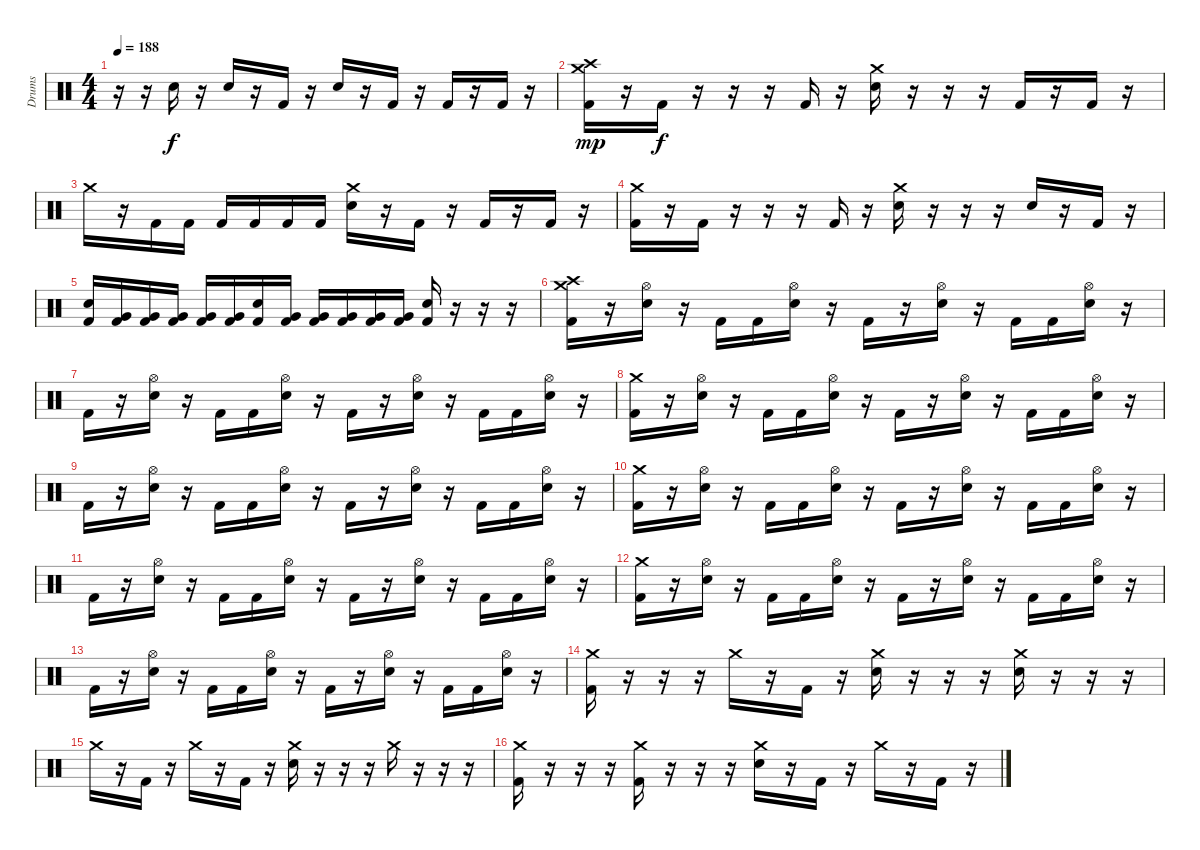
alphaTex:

\track ("Drums" "Drums") {instrument percussion}
\staff {score}
\articulation defaults
\ts (4 4)
\tempo 188
\clef neutral
\ks c
r.16{dy f} r.16 "Snare (hit) 2".16 r.16 "Snare (hit) 2".16 r.16 "Kick (hit) 2".16 r.16 "Snare (hit) 2".16 r.16 "Kick (hit) 2".16 r.16 "Kick (hit) 2".16 r.16 "Kick (hit) 2".16 r.16 |
("Crash medium (hit)" "Crash high (hit)" "Kick (hit) 2").16{dy mp} r.16 "Kick (hit) 2".16{dy f} r.16 r.16 r.16 "Kick (hit) 2".16 r.16 ("Crash medium (hit)" "Snare (hit) 2").16 r.16 r.16 r.16 "Kick (hit) 2".16 r.16 "Kick (hit) 2".16 r.16 |
"Crash medium (hit)".16 r.16 "Kick (hit) 2".16 "Kick (hit) 2".16 "Kick (hit) 2".16 "Kick (hit) 2".16 "Kick (hit) 2".16 "Kick (hit) 2".16 ("Crash medium (hit)" "Snare (hit) 2").16 r.16 "Kick (hit) 2".16 r.16 "Kick (hit) 2".16 r.16 "Kick (hit) 2".16 r.16 |
("Crash medium (hit)" "Kick (hit) 2").16 r.16 "Kick (hit) 2".16 r.16 r.16 r.16 "Kick (hit) 2".16 r.16 ("Crash medium (hit)" "Snare (hit) 2").16 r.16 r.16 r.16 "Snare (hit) 2".16 r.16 "Kick (hit) 2".16 r.16 |
("Snare (hit) 2" "Kick (hit) 2").16 ("Very Low Tom (hit)" "Kick (hit) 2").16 ("Very Low Tom (hit)" "Kick (hit) 2").16 ("Very Low Tom (hit)" "Kick (hit) 2").16 ("Very Low Tom (hit)" "Kick (hit) 2").16 ("Very Low Tom (hit)" "Kick (hit) 2").16 ("Snare (hit) 2" "Kick (hit) 2").16 ("Very Low Tom (hit)" "Kick (hit) 2").16 ("Very Low Tom (hit)" "Kick (hit) 2").16 ("Very Low Tom (hit)" "Kick (hit) 2").16 ("Very Low Tom (hit)" "Kick (hit) 2").16 ("Very Low Tom (hit)" "Kick (hit) 2").16 ("Snare (hit) 2" "Kick (hit) 2").16 r.16 r.16 r.16 |
("Crash medium (hit)" "Crash high (hit)" "Kick (hit) 2").16 r.16 ("Hi-Hat (open)" "Snare (hit) 2").16 r.16 "Kick (hit) 2".16 "Kick (hit) 2".16 ("Hi-Hat (open)" "Snare (hit) 2").16 r.16 "Kick (hit) 2".16 r.16 ("Hi-Hat (open)" "Snare (hit) 2").16 r.16 "Kick (hit) 2".16 "Kick (hit) 2".16 ("Hi-Hat (open)" "Snare (hit) 2").16 r.16 |
"Kick (hit) 2".16 r.16 ("Hi-Hat (open)" "Snare (hit) 2").16 r.16 "Kick (hit) 2".16 "Kick (hit) 2".16 ("Hi-Hat (open)" "Snare (hit) 2").16 r.16 "Kick (hit) 2".16 r.16 ("Hi-Hat (open)" "Snare (hit) 2").16 r.16 "Kick (hit) 2".16 "Kick (hit) 2".16 ("Hi-Hat (open)" "Snare (hit) 2").16 r.16 |
("Crash medium (hit)" "Kick (hit) 2").16 r.16 ("Hi-Hat (open)" "Snare (hit) 2").16 r.16 "Kick (hit) 2".16 "Kick (hit) 2".16 ("Hi-Hat (open)" "Snare (hit) 2").16 r.16 "Kick (hit) 2".16 r.16 ("Hi-Hat (open)" "Snare (hit) 2").16 r.16 "Kick (hit) 2".16 "Kick (hit) 2".16 ("Hi-Hat (open)" "Snare (hit) 2").16 r.16 |
"Kick (hit) 2".16 r.16 ("Hi-Hat (open)" "Snare (hit) 2").16 r.16 "Kick (hit) 2".16 "Kick (hit) 2".16 ("Hi-Hat (open)" "Snare (hit) 2").16 r.16 "Kick (hit) 2".16 r.16 ("Hi-Hat (open)" "Snare (hit) 2").16 r.16 "Kick (hit) 2".16 "Kick (hit) 2".16 ("Hi-Hat (open)" "Snare (hit) 2").16 r.16 |
("Crash medium (hit)" "Kick (hit) 2").16 r.16 ("Hi-Hat (open)" "Snare (hit) 2").16 r.16 "Kick (hit) 2".16 "Kick (hit) 2".16 ("Hi-Hat (open)" "Snare (hit) 2").16 r.16 "Kick (hit) 2".16 r.16 ("Hi-Hat (open)" "Snare (hit) 2").16 r.16 "Kick (hit) 2".16 "Kick (hit) 2".16 ("Hi-Hat (open)" "Snare (hit) 2").16 r.16 |
"Kick (hit) 2".16 r.16 ("Hi-Hat (open)" "Snare (hit) 2").16 r.16 "Kick (hit) 2".16 "Kick (hit) 2".16 ("Hi-Hat (open)" "Snare (hit) 2").16 r.16 "Kick (hit) 2".16 r.16 ("Hi-Hat (open)" "Snare (hit) 2").16 r.16 "Kick (hit) 2".16 "Kick (hit) 2".16 ("Hi-Hat (open)" "Snare (hit) 2").16 r.16 |
("Crash medium (hit)" "Kick (hit) 2").16 r.16 ("Hi-Hat (open)" "Snare (hit) 2").16 r.16 "Kick (hit) 2".16 "Kick (hit) 2".16 ("Hi-Hat (open)" "Snare (hit) 2").16 r.16 "Kick (hit) 2".16 r.16 ("Hi-Hat (open)" "Snare (hit) 2").16 r.16 "Kick (hit) 2".16 "Kick (hit) 2".16 ("Hi-Hat (open)" "Snare (hit) 2").16 r.16 |
"Kick (hit) 2".16 r.16 ("Hi-Hat (open)" "Snare (hit) 2").16 r.16 "Kick (hit) 2".16 "Kick (hit) 2".16 ("Hi-Hat (open)" "Snare (hit) 2").16 r.16 "Kick (hit) 2".16 r.16 ("Hi-Hat (open)" "Snare (hit) 2").16 r.16 "Kick (hit) 2".16 "Kick (hit) 2".16 ("Hi-Hat (open)" "Snare (hit) 2").16 r.16 |
("Crash medium (hit)" "Kick (hit) 2").16 r.16 r.16 r.16 "Crash medium (hit)".16 r.16 "Kick (hit) 2".16 r.16 ("Crash medium (hit)" "Snare (hit) 2").16 r.16 r.16 r.16 ("Crash medium (hit)" "Snare (hit) 2").16 r.16 r.16 r.16 |
"Crash medium (hit)".16 r.16 "Kick (hit) 2".16 r.16 "Crash medium (hit)".16 r.16 "Kick (hit) 2".16 r.16 ("Crash medium (hit)" "Snare (hit) 2").16 r.16 r.16 r.16 "Crash medium (hit)".16 r.16 r.16 r.16 |
("Crash medium (hit)" "Kick (hit) 2").16 r.16 r.16 r.16 ("Crash medium (hit)" "Kick (hit) 2").16 r.16 r.16 r.16 ("Crash medium (hit)" "Snare (hit) 2").16 r.16 "Kick (hit) 2".16 r.16 "Crash medium (hit)".16 r.16 "Kick (hit) 2".16 r.16
